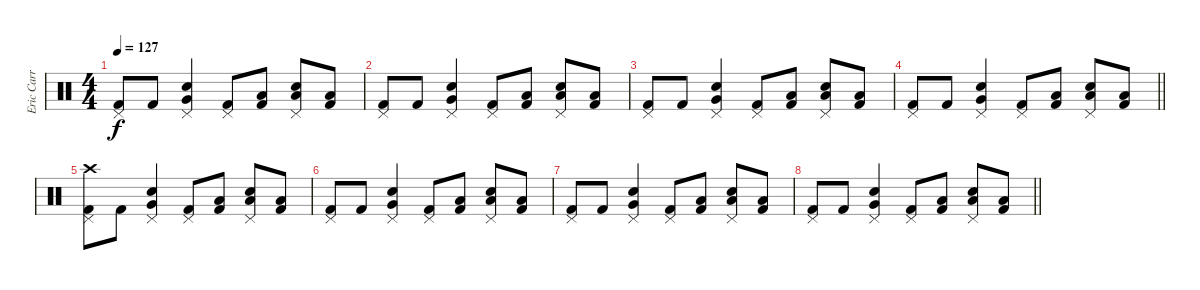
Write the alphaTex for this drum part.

\track ("Eric Carr (Drums)" "Eric Carr ") {instrument percussion}
\staff {score}
\articulation defaults
\ts (4 4)
\tempo 127
\clef neutral
\ks c
("Pedal Hi-Hat (hit)" "Kick (hit) 2").8{dy f} "Kick (hit) 2".8 ("Pedal Hi-Hat (hit)" "Very Low Tom (hit)" "Snare (hit) 2").4 ("Pedal Hi-Hat (hit)" "Kick (hit) 2").8 ("Low Tom (hit)" "Kick (hit) 2").8 ("Pedal Hi-Hat (hit)" "Low Floor Tom (hit)" "Snare (hit) 2").8 ("Low Tom (hit)" "Kick (hit) 2").8 |
("Pedal Hi-Hat (hit)" "Kick (hit) 2").8 "Kick (hit) 2".8 ("Pedal Hi-Hat (hit)" "Very Low Tom (hit)" "Snare (hit) 2").4 ("Pedal Hi-Hat (hit)" "Kick (hit) 2").8 ("Low Tom (hit)" "Kick (hit) 2").8 ("Pedal Hi-Hat (hit)" "Low Floor Tom (hit)" "Snare (hit) 2").8 ("Low Tom (hit)" "Kick (hit) 2").8 |
("Pedal Hi-Hat (hit)" "Kick (hit) 2").8 "Kick (hit) 2".8 ("Pedal Hi-Hat (hit)" "Very Low Tom (hit)" "Snare (hit) 2").4 ("Pedal Hi-Hat (hit)" "Kick (hit) 2").8 ("Low Tom (hit)" "Kick (hit) 2").8 ("Pedal Hi-Hat (hit)" "Low Floor Tom (hit)" "Snare (hit) 2").8 ("Low Tom (hit)" "Kick (hit) 2").8 |
\barLineRight lightlight
("Pedal Hi-Hat (hit)" "Kick (hit) 2").8 "Kick (hit) 2".8 ("Pedal Hi-Hat (hit)" "Very Low Tom (hit)" "Snare (hit) 2").4 ("Pedal Hi-Hat (hit)" "Kick (hit) 2").8 ("Low Tom (hit)" "Kick (hit) 2").8 ("Pedal Hi-Hat (hit)" "Low Floor Tom (hit)" "Snare (hit) 2").8 ("Low Tom (hit)" "Kick (hit) 2").8 |
("Crash high (hit)" "Pedal Hi-Hat (hit)" "Kick (hit) 2").8 "Kick (hit) 2".8 ("Pedal Hi-Hat (hit)" "Very Low Tom (hit)" "Snare (hit) 2").4 ("Pedal Hi-Hat (hit)" "Kick (hit) 2").8 ("Low Tom (hit)" "Kick (hit) 2").8 ("Pedal Hi-Hat (hit)" "Low Floor Tom (hit)" "Snare (hit) 2").8 ("Low Tom (hit)" "Kick (hit) 2").8 |
("Pedal Hi-Hat (hit)" "Kick (hit) 2").8 "Kick (hit) 2".8 ("Pedal Hi-Hat (hit)" "Very Low Tom (hit)" "Snare (hit) 2").4 ("Pedal Hi-Hat (hit)" "Kick (hit) 2").8 ("Low Tom (hit)" "Kick (hit) 2").8 ("Pedal Hi-Hat (hit)" "Low Floor Tom (hit)" "Snare (hit) 2").8 ("Low Tom (hit)" "Kick (hit) 2").8 |
("Pedal Hi-Hat (hit)" "Kick (hit) 2").8 "Kick (hit) 2".8 ("Pedal Hi-Hat (hit)" "Very Low Tom (hit)" "Snare (hit) 2").4 ("Pedal Hi-Hat (hit)" "Kick (hit) 2").8 ("Low Tom (hit)" "Kick (hit) 2").8 ("Pedal Hi-Hat (hit)" "Low Floor Tom (hit)" "Snare (hit) 2").8 ("Low Tom (hit)" "Kick (hit) 2").8 |
\barLineRight lightlight
("Pedal Hi-Hat (hit)" "Kick (hit) 2").8 "Kick (hit) 2".8 ("Pedal Hi-Hat (hit)" "Very Low Tom (hit)" "Snare (hit) 2").4 ("Pedal Hi-Hat (hit)" "Kick (hit) 2").8 ("Low Tom (hit)" "Kick (hit) 2").8 ("Pedal Hi-Hat (hit)" "Low Floor Tom (hit)" "Snare (hit) 2").8 ("Low Tom (hit)" "Kick (hit) 2").8
